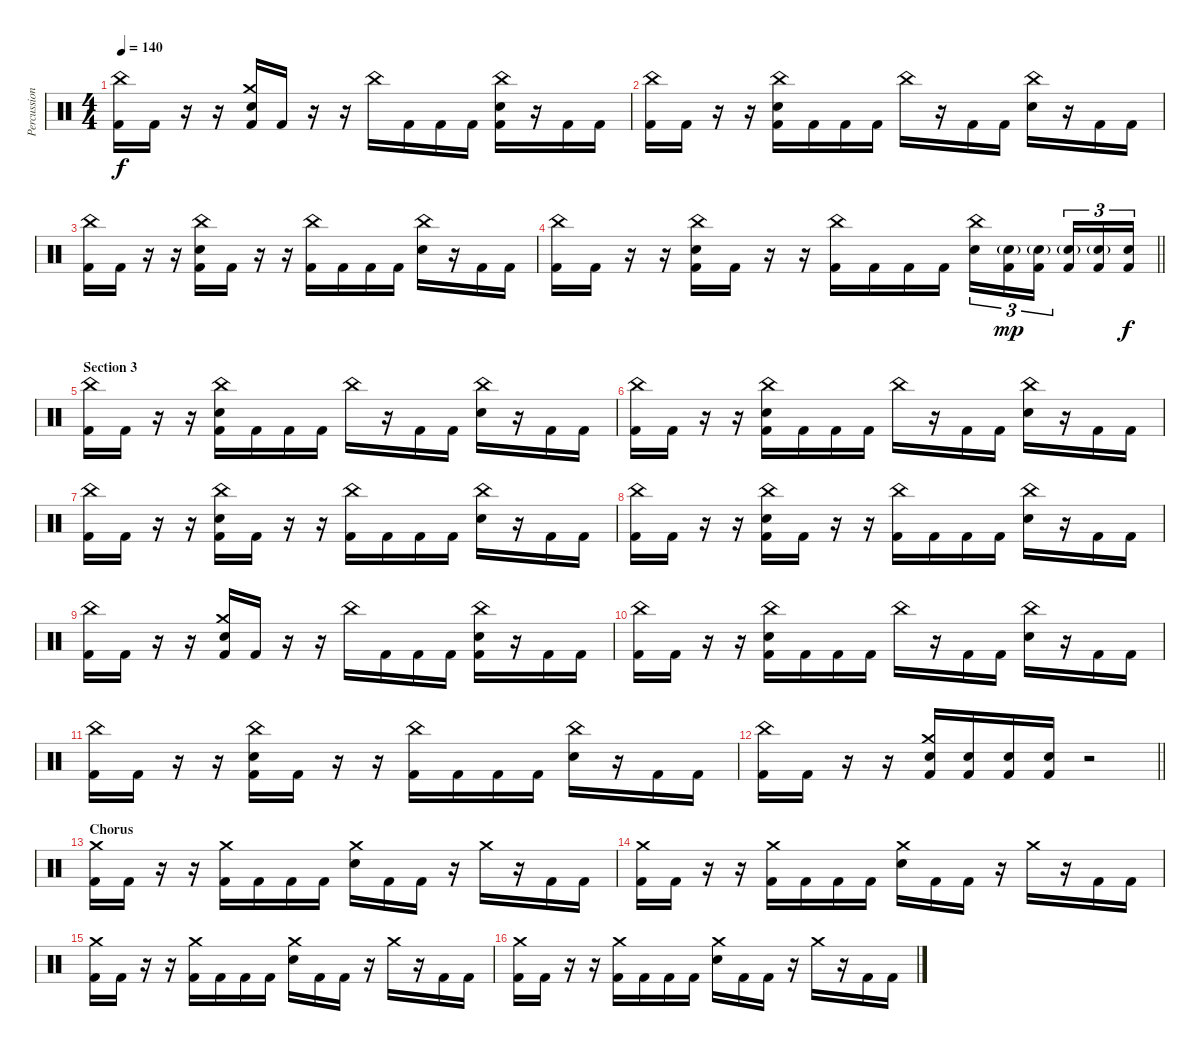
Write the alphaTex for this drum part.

\track ("Percussion" "Percussion") {instrument percussion}
\staff {score}
\articulation defaults
\ts (4 4)
\tempo 140
\clef neutral
\ks c
("China (hit)" "Kick (hit) 2").16{dy f} "Kick (hit) 2".16 r.16 r.16 ("Crash medium (hit)" "Electric Snare (hit)" "Kick (hit) 2").16 "Kick (hit) 2".16 r.16 r.16 "China (hit)".16 "Kick (hit) 2".16 "Kick (hit) 2".16 "Kick (hit) 2".16 ("China (hit)" "Electric Snare (hit)" "Kick (hit) 2").16 r.16 "Kick (hit) 2".16 "Kick (hit) 2".16 |
("China (hit)" "Kick (hit) 2").16 "Kick (hit) 2".16 r.16 r.16 ("China (hit)" "Electric Snare (hit)" "Kick (hit) 2").16 "Kick (hit) 2".16 "Kick (hit) 2".16 "Kick (hit) 2".16 "China (hit)".16 r.16 "Kick (hit) 2".16 "Kick (hit) 2".16 ("China (hit)" "Electric Snare (hit)").16 r.16 "Kick (hit) 2".16 "Kick (hit) 2".16 |
("China (hit)" "Kick (hit) 2").16 "Kick (hit) 2".16 r.16 r.16 ("China (hit)" "Electric Snare (hit)" "Kick (hit) 2").16 "Kick (hit) 2".16 r.16 r.16 ("China (hit)" "Kick (hit) 2").16 "Kick (hit) 2".16 "Kick (hit) 2".16 "Kick (hit) 2".16 ("China (hit)" "Electric Snare (hit)").16 r.16 "Kick (hit) 2".16 "Kick (hit) 2".16 |
\barLineRight lightlight
("China (hit)" "Kick (hit) 2").16 "Kick (hit) 2".16 r.16 r.16 ("China (hit)" "Electric Snare (hit)" "Kick (hit) 2").16 "Kick (hit) 2".16 r.16 r.16 ("China (hit)" "Kick (hit) 2").16 "Kick (hit) 2".16 "Kick (hit) 2".16 "Kick (hit) 2".16 ("China (hit)" "Electric Snare (hit)").16{tu (3 2)} ("Electric Snare (hit)"{g} "Kick (hit) 2").16{tu (3 2) dy mp} ("Electric Snare (hit)"{g} "Kick (hit) 2").16{tu (3 2) beam splitsecondary} ("Electric Snare (hit)"{g} "Kick (hit) 2").16{tu (3 2)} ("Electric Snare (hit)"{g} "Kick (hit) 2").16{tu (3 2)} ("Electric Snare (hit)" "Kick (hit) 2").16{tu (3 2) dy f} |
\section ("" "Section 3")
("China (hit)" "Kick (hit) 2").16 "Kick (hit) 2".16 r.16 r.16 ("China (hit)" "Electric Snare (hit)" "Kick (hit) 2").16 "Kick (hit) 2".16 "Kick (hit) 2".16 "Kick (hit) 2".16 "China (hit)".16 r.16 "Kick (hit) 2".16 "Kick (hit) 2".16 ("China (hit)" "Electric Snare (hit)").16 r.16 "Kick (hit) 2".16 "Kick (hit) 2".16 |
("China (hit)" "Kick (hit) 2").16 "Kick (hit) 2".16 r.16 r.16 ("China (hit)" "Electric Snare (hit)" "Kick (hit) 2").16 "Kick (hit) 2".16 "Kick (hit) 2".16 "Kick (hit) 2".16 "China (hit)".16 r.16 "Kick (hit) 2".16 "Kick (hit) 2".16 ("China (hit)" "Electric Snare (hit)").16 r.16 "Kick (hit) 2".16 "Kick (hit) 2".16 |
("China (hit)" "Kick (hit) 2").16 "Kick (hit) 2".16 r.16 r.16 ("China (hit)" "Electric Snare (hit)" "Kick (hit) 2").16 "Kick (hit) 2".16 r.16 r.16 ("China (hit)" "Kick (hit) 2").16 "Kick (hit) 2".16 "Kick (hit) 2".16 "Kick (hit) 2".16 ("China (hit)" "Electric Snare (hit)").16 r.16 "Kick (hit) 2".16 "Kick (hit) 2".16 |
("China (hit)" "Kick (hit) 2").16 "Kick (hit) 2".16 r.16 r.16 ("China (hit)" "Electric Snare (hit)" "Kick (hit) 2").16 "Kick (hit) 2".16 r.16 r.16 ("China (hit)" "Kick (hit) 2").16 "Kick (hit) 2".16 "Kick (hit) 2".16 "Kick (hit) 2".16 ("China (hit)" "Electric Snare (hit)").16 r.16 "Kick (hit) 2".16 "Kick (hit) 2".16 |
("China (hit)" "Kick (hit) 2").16 "Kick (hit) 2".16 r.16 r.16 ("Crash medium (hit)" "Electric Snare (hit)" "Kick (hit) 2").16 "Kick (hit) 2".16 r.16 r.16 "China (hit)".16 "Kick (hit) 2".16 "Kick (hit) 2".16 "Kick (hit) 2".16 ("China (hit)" "Electric Snare (hit)" "Kick (hit) 2").16 r.16 "Kick (hit) 2".16 "Kick (hit) 2".16 |
("China (hit)" "Kick (hit) 2").16 "Kick (hit) 2".16 r.16 r.16 ("China (hit)" "Electric Snare (hit)" "Kick (hit) 2").16 "Kick (hit) 2".16 "Kick (hit) 2".16 "Kick (hit) 2".16 "China (hit)".16 r.16 "Kick (hit) 2".16 "Kick (hit) 2".16 ("China (hit)" "Electric Snare (hit)").16 r.16 "Kick (hit) 2".16 "Kick (hit) 2".16 |
("China (hit)" "Kick (hit) 2").16 "Kick (hit) 2".16 r.16 r.16 ("China (hit)" "Electric Snare (hit)" "Kick (hit) 2").16 "Kick (hit) 2".16 r.16 r.16 ("China (hit)" "Kick (hit) 2").16 "Kick (hit) 2".16 "Kick (hit) 2".16 "Kick (hit) 2".16 ("China (hit)" "Electric Snare (hit)").16 r.16 "Kick (hit) 2".16 "Kick (hit) 2".16 |
\barLineRight lightlight
("China (hit)" "Kick (hit) 2").16 "Kick (hit) 2".16 r.16 r.16 ("Crash medium (hit)" "Electric Snare (hit)" "Kick (hit) 2").16 ("Electric Snare (hit)" "Kick (hit) 2").16 ("Electric Snare (hit)" "Kick (hit) 2").16 ("Electric Snare (hit)" "Kick (hit) 2").16 r.2 |
\section ("" "Chorus")
("Crash medium (hit)" "Kick (hit) 2").16 "Kick (hit) 2".16 r.16 r.16 ("Crash medium (hit)" "Kick (hit) 2").16 "Kick (hit) 2".16 "Kick (hit) 2".16 "Kick (hit) 2".16 ("Crash medium (hit)" "Electric Snare (hit)").16 "Kick (hit) 2".16 "Kick (hit) 2".16 r.16 "Crash medium (hit)".16 r.16 "Kick (hit) 2".16 "Kick (hit) 2".16 |
("Crash medium (hit)" "Kick (hit) 2").16 "Kick (hit) 2".16 r.16 r.16 ("Crash medium (hit)" "Kick (hit) 2").16 "Kick (hit) 2".16 "Kick (hit) 2".16 "Kick (hit) 2".16 ("Crash medium (hit)" "Electric Snare (hit)").16 "Kick (hit) 2".16 "Kick (hit) 2".16 r.16 "Crash medium (hit)".16 r.16 "Kick (hit) 2".16 "Kick (hit) 2".16 |
("Crash medium (hit)" "Kick (hit) 2").16 "Kick (hit) 2".16 r.16 r.16 ("Crash medium (hit)" "Kick (hit) 2").16 "Kick (hit) 2".16 "Kick (hit) 2".16 "Kick (hit) 2".16 ("Crash medium (hit)" "Electric Snare (hit)").16 "Kick (hit) 2".16 "Kick (hit) 2".16 r.16 "Crash medium (hit)".16 r.16 "Kick (hit) 2".16 "Kick (hit) 2".16 |
("Crash medium (hit)" "Kick (hit) 2").16 "Kick (hit) 2".16 r.16 r.16 ("Crash medium (hit)" "Kick (hit) 2").16 "Kick (hit) 2".16 "Kick (hit) 2".16 "Kick (hit) 2".16 ("Crash medium (hit)" "Electric Snare (hit)").16 "Kick (hit) 2".16 "Kick (hit) 2".16 r.16 "Crash medium (hit)".16 r.16 "Kick (hit) 2".16 "Kick (hit) 2".16
